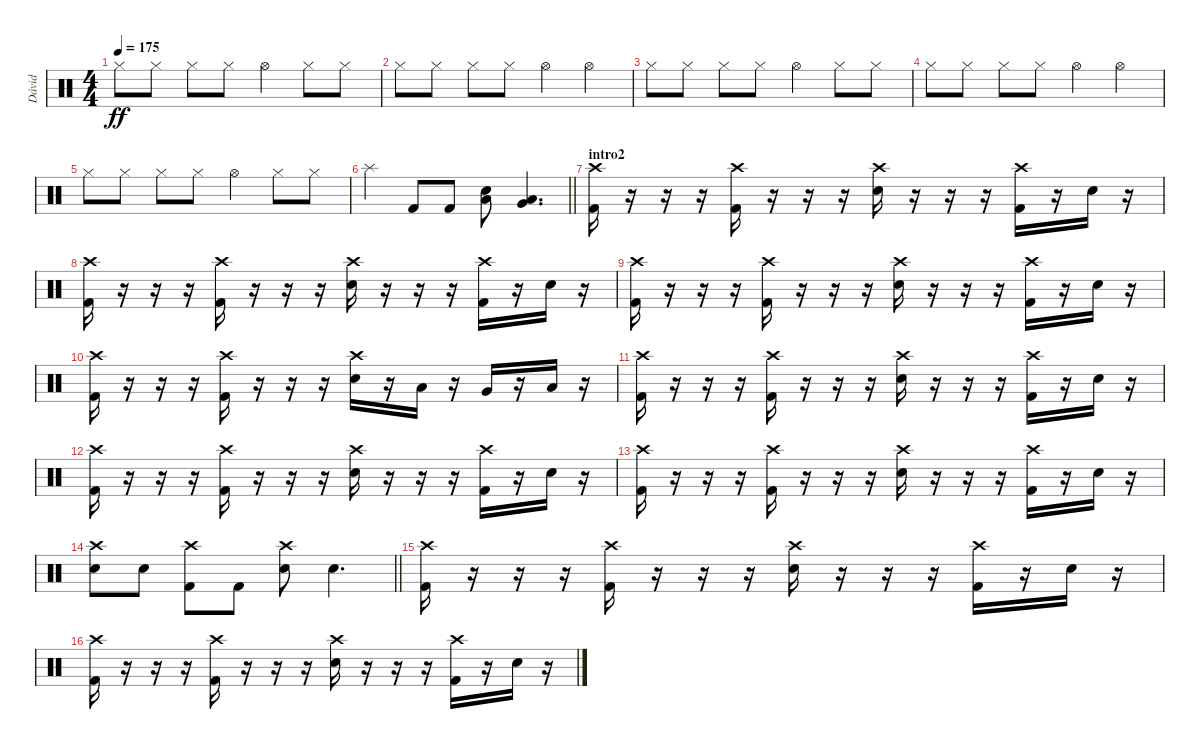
\track ("Dávid" "Dávid") {instrument percussion}
\staff {score}
\articulation defaults
\ts (4 4)
\tempo 175
\clef neutral
\ks c "Hi-Hat (closed)".8{dy ff} "Hi-Hat (closed)".8 "Hi-Hat (closed)".8 "Hi-Hat (closed)".8 "Hi-Hat (open)".4 "Hi-Hat (closed)".8 "Hi-Hat (closed)".8
|
"Hi-Hat (closed)".8 "Hi-Hat (closed)".8 "Hi-Hat (closed)".8 "Hi-Hat (closed)".8 "Hi-Hat (open)".4 "Hi-Hat (open)".4 |
"Hi-Hat (closed)".8 "Hi-Hat (closed)".8 "Hi-Hat (closed)".8 "Hi-Hat (closed)".8 "Hi-Hat (open)".4 "Hi-Hat (closed)".8 "Hi-Hat (closed)".8 |
"Hi-Hat (closed)".8 "Hi-Hat (closed)".8 "Hi-Hat (closed)".8 "Hi-Hat (closed)".8 "Hi-Hat (open)".4 "Hi-Hat (open)".4 |
"Hi-Hat (closed)".8 "Hi-Hat (closed)".8 "Hi-Hat (closed)".8 "Hi-Hat (closed)".8 "Hi-Hat (open)".4 "Hi-Hat (closed)".8 "Hi-Hat (closed)".8 |
\barLineRight lightlight "Splash (hit)".4{volume 16} "Kick (hit) 2".8 "Kick (hit) 2".8
("Electric Snare (hit)" "Low Tom (hit)").8 ("Low Floor Tom (hit)" "Very Low Tom (hit)").4{d} |
\section ("" "intro2")
("Crash high (hit)" "Kick (hit) 2").16 r.16 r.16 r.16 ("Crash high (hit)" "Kick (hit) 2").16 r.16 r.16 r.16 ("Crash high (hit)" "Electric Snare (hit)").16 r.16 r.16 r.16 ("Crash high (hit)" "Kick (hit) 2").16 r.16 "Electric Snare (hit)".16 r.16 |
("Crash high (hit)" "Kick (hit) 2").16 r.16 r.16 r.16 ("Crash high (hit)" "Kick (hit) 2").16 r.16 r.16 r.16 ("Crash high (hit)" "Electric Snare (hit)").16 r.16 r.16 r.16 ("Crash high (hit)" "Kick (hit) 2").16 r.16 "Electric Snare (hit)".16 r.16 |
("Crash high (hit)" "Kick (hit) 2").16 r.16 r.16 r.16 ("Crash high (hit)" "Kick (hit) 2").16 r.16 r.16 r.16 ("Crash high (hit)" "Electric Snare (hit)").16 r.16 r.16 r.16 ("Crash high (hit)" "Kick (hit) 2").16 r.16 "Electric Snare (hit)".16 r.16 |
("Crash high (hit)" "Kick (hit) 2").16 r.16 r.16 r.16 ("Crash high (hit)" "Kick (hit) 2").16 r.16 r.16 r.16 ("Crash high (hit)" "Electric Snare (hit)").16 r.16 "Low Tom (hit)".16 r.16 "Very Low Tom (hit)".16 r.16 "Low Floor Tom (hit)".16 r.16 |
("Crash high (hit)" "Kick (hit) 2").16 r.16 r.16 r.16 ("Crash high (hit)" "Kick (hit) 2").16 r.16 r.16 r.16 ("Crash high (hit)" "Electric Snare (hit)").16 r.16 r.16 r.16 ("Crash high (hit)" "Kick (hit) 2").16 r.16 "Electric Snare (hit)".16 r.16 |
("Crash high (hit)" "Kick (hit) 2").16 r.16 r.16 r.16 ("Crash high (hit)" "Kick (hit) 2").16 r.16 r.16 r.16 ("Crash high (hit)" "Electric Snare (hit)").16 r.16 r.16 r.16 ("Crash high (hit)" "Kick (hit) 2").16 r.16 "Electric Snare (hit)".16 r.16 |
("Crash high (hit)" "Kick (hit) 2").16 r.16 r.16 r.16 ("Crash high (hit)" "Kick (hit) 2").16 r.16 r.16 r.16 ("Crash high (hit)" "Electric Snare (hit)").16 r.16 r.16 r.16 ("Crash high (hit)" "Kick (hit) 2").16 r.16 "Electric Snare (hit)".16 r.16 |
\barLineRight lightlight
("Crash high (hit)" "Electric Snare (hit)").8 "Electric Snare (hit)".8 ("Crash high (hit)" "Kick (hit) 2").8 "Kick (hit) 2".8 ("Crash high (hit)" "Electric Snare (hit)").8 "Electric Snare (hit)".4{d} |
\section ("" "")
("Crash high (hit)" "Kick (hit) 2").16 r.16 r.16 r.16 ("Crash high (hit)" "Kick (hit) 2").16 r.16 r.16 r.16 ("Crash high (hit)" "Electric Snare (hit)").16 r.16 r.16 r.16 ("Crash high (hit)" "Kick (hit) 2").16 r.16 "Electric Snare (hit)".16 r.16 |
("Crash high (hit)" "Kick (hit) 2").16 r.16 r.16 r.16 ("Crash high (hit)" "Kick (hit) 2").16 r.16 r.16 r.16 ("Crash high (hit)" "Electric Snare (hit)").16 r.16 r.16 r.16 ("Crash high (hit)" "Kick (hit) 2").16 r.16 "Electric Snare (hit)".16 r.16
